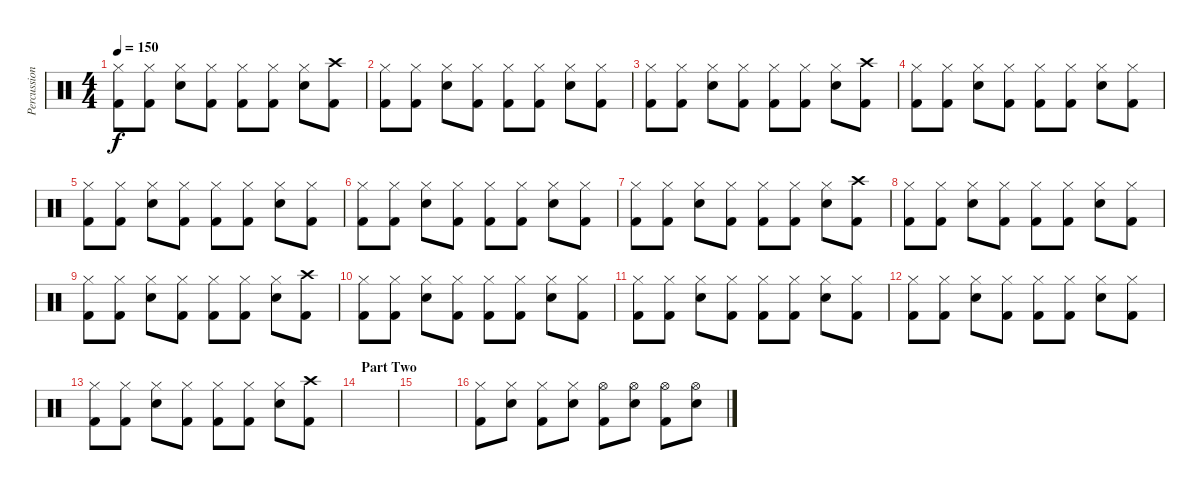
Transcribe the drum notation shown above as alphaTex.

\track ("Percussion" "Percussion") {instrument percussion}
\staff {score}
\articulation defaults
\ts (4 4)
\tempo 150
\clef neutral
\ks c
("Hi-Hat (closed)" "Kick (hit) 2").8{dy f} ("Hi-Hat (closed)" "Kick (hit) 2").8 ("Hi-Hat (closed)" "Electric Snare (hit)").8 ("Hi-Hat (closed)" "Kick (hit) 2").8 ("Hi-Hat (closed)" "Kick (hit) 2").8 ("Hi-Hat (closed)" "Kick (hit) 2").8 ("Hi-Hat (closed)" "Electric Snare (hit)").8 ("Crash high (hit)" "Kick (hit) 2").8 |
("Hi-Hat (closed)" "Kick (hit) 2").8 ("Hi-Hat (closed)" "Kick (hit) 2").8 ("Hi-Hat (closed)" "Electric Snare (hit)").8 ("Hi-Hat (closed)" "Kick (hit) 2").8 ("Hi-Hat (closed)" "Kick (hit) 2").8 ("Hi-Hat (closed)" "Kick (hit) 2").8 ("Hi-Hat (closed)" "Electric Snare (hit)").8 ("Hi-Hat (closed)" "Kick (hit) 2").8 |
("Hi-Hat (closed)" "Kick (hit) 2").8 ("Hi-Hat (closed)" "Kick (hit) 2").8 ("Hi-Hat (closed)" "Electric Snare (hit)").8 ("Hi-Hat (closed)" "Kick (hit) 2").8 ("Hi-Hat (closed)" "Kick (hit) 2").8 ("Hi-Hat (closed)" "Kick (hit) 2").8 ("Hi-Hat (closed)" "Electric Snare (hit)").8 ("Crash high (hit)" "Kick (hit) 2").8 |
("Hi-Hat (closed)" "Kick (hit) 2").8 ("Hi-Hat (closed)" "Kick (hit) 2").8 ("Hi-Hat (closed)" "Electric Snare (hit)").8 ("Hi-Hat (closed)" "Kick (hit) 2").8 ("Hi-Hat (closed)" "Kick (hit) 2").8 ("Hi-Hat (closed)" "Kick (hit) 2").8 ("Hi-Hat (closed)" "Electric Snare (hit)").8 ("Hi-Hat (closed)" "Kick (hit) 2").8 |
("Hi-Hat (closed)" "Kick (hit) 2").8 ("Hi-Hat (closed)" "Kick (hit) 2").8 ("Hi-Hat (closed)" "Electric Snare (hit)").8 ("Hi-Hat (closed)" "Kick (hit) 2").8 ("Hi-Hat (closed)" "Kick (hit) 2").8 ("Hi-Hat (closed)" "Kick (hit) 2").8 ("Hi-Hat (closed)" "Electric Snare (hit)").8 ("Hi-Hat (closed)" "Kick (hit) 2").8 |
("Hi-Hat (closed)" "Kick (hit) 2").8 ("Hi-Hat (closed)" "Kick (hit) 2").8 ("Hi-Hat (closed)" "Electric Snare (hit)").8 ("Hi-Hat (closed)" "Kick (hit) 2").8 ("Hi-Hat (closed)" "Kick (hit) 2").8 ("Hi-Hat (closed)" "Kick (hit) 2").8 ("Hi-Hat (closed)" "Electric Snare (hit)").8 ("Hi-Hat (closed)" "Kick (hit) 2").8 |
("Hi-Hat (closed)" "Kick (hit) 2").8 ("Hi-Hat (closed)" "Kick (hit) 2").8 ("Hi-Hat (closed)" "Electric Snare (hit)").8 ("Hi-Hat (closed)" "Kick (hit) 2").8 ("Hi-Hat (closed)" "Kick (hit) 2").8 ("Hi-Hat (closed)" "Kick (hit) 2").8 ("Hi-Hat (closed)" "Electric Snare (hit)").8 ("Crash high (hit)" "Kick (hit) 2").8 |
("Hi-Hat (closed)" "Kick (hit) 2").8 ("Hi-Hat (closed)" "Kick (hit) 2").8 ("Hi-Hat (closed)" "Electric Snare (hit)").8 ("Hi-Hat (closed)" "Kick (hit) 2").8 ("Hi-Hat (closed)" "Kick (hit) 2").8 ("Hi-Hat (closed)" "Kick (hit) 2").8 ("Hi-Hat (closed)" "Electric Snare (hit)").8 ("Hi-Hat (closed)" "Kick (hit) 2").8 |
("Hi-Hat (closed)" "Kick (hit) 2").8 ("Hi-Hat (closed)" "Kick (hit) 2").8 ("Hi-Hat (closed)" "Electric Snare (hit)").8 ("Hi-Hat (closed)" "Kick (hit) 2").8 ("Hi-Hat (closed)" "Kick (hit) 2").8 ("Hi-Hat (closed)" "Kick (hit) 2").8 ("Hi-Hat (closed)" "Electric Snare (hit)").8 ("Crash high (hit)" "Kick (hit) 2").8 |
("Hi-Hat (closed)" "Kick (hit) 2").8 ("Hi-Hat (closed)" "Kick (hit) 2").8 ("Hi-Hat (closed)" "Electric Snare (hit)").8 ("Hi-Hat (closed)" "Kick (hit) 2").8 ("Hi-Hat (closed)" "Kick (hit) 2").8 ("Hi-Hat (closed)" "Kick (hit) 2").8 ("Hi-Hat (closed)" "Electric Snare (hit)").8 ("Hi-Hat (closed)" "Kick (hit) 2").8 |
("Hi-Hat (closed)" "Kick (hit) 2").8 ("Hi-Hat (closed)" "Kick (hit) 2").8 ("Hi-Hat (closed)" "Electric Snare (hit)").8 ("Hi-Hat (closed)" "Kick (hit) 2").8 ("Hi-Hat (closed)" "Kick (hit) 2").8 ("Hi-Hat (closed)" "Kick (hit) 2").8 ("Hi-Hat (closed)" "Electric Snare (hit)").8 ("Hi-Hat (closed)" "Kick (hit) 2").8 |
("Hi-Hat (closed)" "Kick (hit) 2").8 ("Hi-Hat (closed)" "Kick (hit) 2").8 ("Hi-Hat (closed)" "Electric Snare (hit)").8 ("Hi-Hat (closed)" "Kick (hit) 2").8 ("Hi-Hat (closed)" "Kick (hit) 2").8 ("Hi-Hat (closed)" "Kick (hit) 2").8 ("Hi-Hat (closed)" "Electric Snare (hit)").8 ("Hi-Hat (closed)" "Kick (hit) 2").8 |
("Hi-Hat (closed)" "Kick (hit) 2").8 ("Hi-Hat (closed)" "Kick (hit) 2").8 ("Hi-Hat (closed)" "Electric Snare (hit)").8 ("Hi-Hat (closed)" "Kick (hit) 2").8 ("Hi-Hat (closed)" "Kick (hit) 2").8 ("Hi-Hat (closed)" "Kick (hit) 2").8 ("Hi-Hat (closed)" "Electric Snare (hit)").8 ("Crash high (hit)" "Kick (hit) 2").8 |
\section ("" "Part Two")
|
|
("Hi-Hat (closed)" "Kick (hit) 2").8 ("Hi-Hat (closed)" "Electric Snare (hit)").8 ("Hi-Hat (closed)" "Kick (hit) 2").8 ("Hi-Hat (closed)" "Electric Snare (hit)").8 ("Hi-Hat (open)" "Kick (hit) 2").8 ("Hi-Hat (open)" "Electric Snare (hit)").8 ("Hi-Hat (open)" "Kick (hit) 2").8 ("Hi-Hat (open)" "Electric Snare (hit)").8
